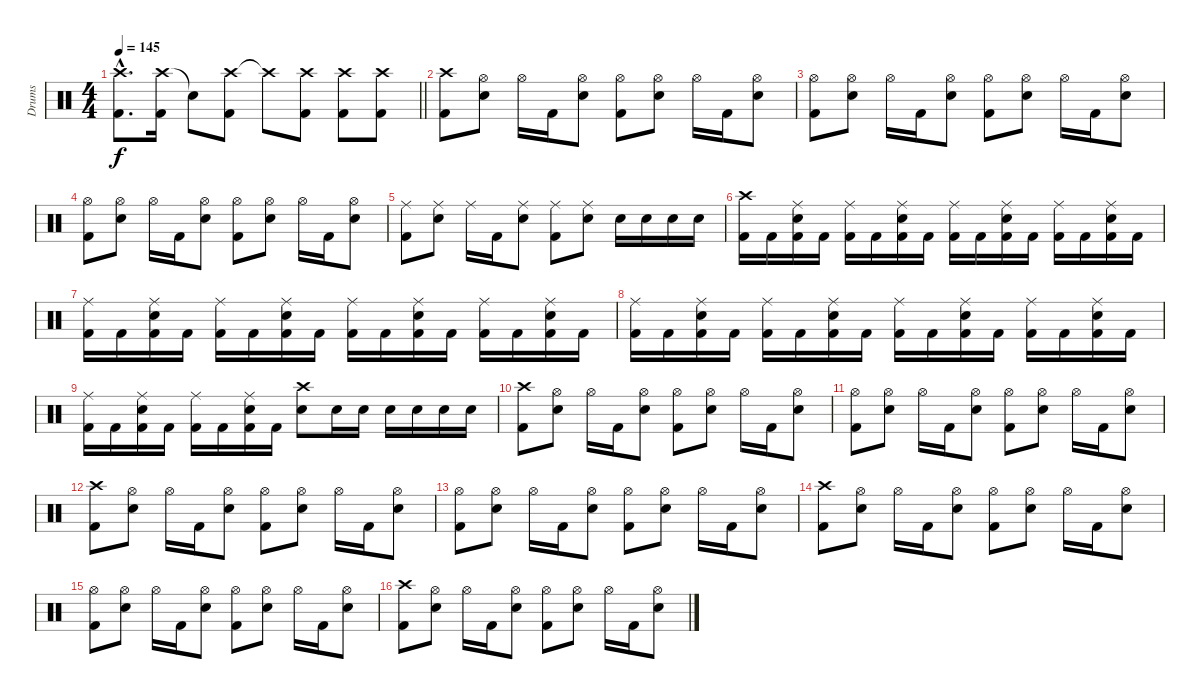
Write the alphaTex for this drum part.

\track ("Drums" "Drums") {instrument percussion}
\staff {score}
\articulation defaults
\ts (4 4)
\tempo 145
\clef neutral
\barLineRight lightlight
\ks c
("Crash high (hit)"{hac} "Kick (hit) 2"{hac}).8{d dy f} ("Crash high (hit)" "Kick (hit) 2").16 "Snare (hit)"{t}.8 ("Crash high (hit)" "Kick (hit) 2").8 "Crash high (hit)"{t}.8 ("Crash high (hit)" "Kick (hit) 2").8 ("Crash high (hit)" "Kick (hit) 2").8 ("Crash high (hit)" "Kick (hit) 2").8 |
("Crash high (hit)" "Kick (hit) 2").8 ("Hi-Hat (open)" "Snare (hit) 2").8 "Hi-Hat (open)".16 "Kick (hit) 2".16 ("Hi-Hat (open)" "Snare (hit) 2").8 ("Hi-Hat (open)" "Kick (hit) 2").8 ("Hi-Hat (open)" "Snare (hit) 2").8 "Hi-Hat (open)".16 "Kick (hit) 2".16 ("Hi-Hat (open)" "Snare (hit) 2").8 |
("Hi-Hat (open)" "Kick (hit) 2").8 ("Hi-Hat (open)" "Snare (hit) 2").8 "Hi-Hat (open)".16 "Kick (hit) 2".16 ("Hi-Hat (open)" "Snare (hit) 2").8 ("Hi-Hat (open)" "Kick (hit) 2").8 ("Hi-Hat (open)" "Snare (hit) 2").8 "Hi-Hat (open)".16 "Kick (hit) 2".16 ("Hi-Hat (open)" "Snare (hit) 2").8 |
("Hi-Hat (open)" "Kick (hit) 2").8 ("Hi-Hat (open)" "Snare (hit) 2").8 "Hi-Hat (open)".16 "Kick (hit) 2".16 ("Hi-Hat (open)" "Snare (hit) 2").8 ("Hi-Hat (open)" "Kick (hit) 2").8 ("Hi-Hat (open)" "Snare (hit) 2").8 "Hi-Hat (open)".16 "Kick (hit) 2".16 ("Hi-Hat (open)" "Snare (hit) 2").8 |
("Ride (middle)" "Kick (hit) 2").8 ("Ride (middle)" "Snare (hit) 2").8 "Ride (middle)".16 "Kick (hit) 2".16 ("Ride (middle)" "Snare (hit) 2").8 ("Ride (middle)" "Kick (hit) 2").8 ("Ride (middle)" "Snare (hit) 2").8 "Snare (hit) 2".16 "Snare (hit) 2".16 "Snare (hit) 2".16 "Snare (hit) 2".16 |
("Crash high (hit)" "Kick (hit) 2").16 "Kick (hit) 2".16 ("Ride (middle)" "Snare (hit) 2" "Kick (hit) 2").16 "Kick (hit) 2".16 ("Ride (middle)" "Kick (hit) 2").16 "Kick (hit) 2".16 ("Ride (middle)" "Snare (hit) 2" "Kick (hit) 2").16 "Kick (hit) 2".16 ("Ride (middle)" "Kick (hit) 2").16 "Kick (hit) 2".16 ("Ride (middle)" "Snare (hit) 2" "Kick (hit) 2").16 "Kick (hit) 2".16 ("Ride (middle)" "Kick (hit) 2").16 "Kick (hit) 2".16 ("Ride (middle)" "Snare (hit) 2" "Kick (hit) 2").16 "Kick (hit) 2".16 |
("Ride (middle)" "Kick (hit) 2").16 "Kick (hit) 2".16 ("Ride (middle)" "Snare (hit) 2" "Kick (hit) 2").16 "Kick (hit) 2".16 ("Ride (middle)" "Kick (hit) 2").16 "Kick (hit) 2".16 ("Ride (middle)" "Snare (hit) 2" "Kick (hit) 2").16 "Kick (hit) 2".16 ("Ride (middle)" "Kick (hit) 2").16 "Kick (hit) 2".16 ("Ride (middle)" "Snare (hit) 2" "Kick (hit) 2").16 "Kick (hit) 2".16 ("Ride (middle)" "Kick (hit) 2").16 "Kick (hit) 2".16 ("Ride (middle)" "Snare (hit) 2" "Kick (hit) 2").16 "Kick (hit) 2".16 |
("Ride (middle)" "Kick (hit) 2").16 "Kick (hit) 2".16 ("Ride (middle)" "Snare (hit) 2" "Kick (hit) 2").16 "Kick (hit) 2".16 ("Ride (middle)" "Kick (hit) 2").16 "Kick (hit) 2".16 ("Ride (middle)" "Snare (hit) 2" "Kick (hit) 2").16 "Kick (hit) 2".16 ("Ride (middle)" "Kick (hit) 2").16 "Kick (hit) 2".16 ("Ride (middle)" "Snare (hit) 2" "Kick (hit) 2").16 "Kick (hit) 2".16 ("Ride (middle)" "Kick (hit) 2").16 "Kick (hit) 2".16 ("Ride (middle)" "Snare (hit) 2" "Kick (hit) 2").16 "Kick (hit) 2".16 |
("Ride (middle)" "Kick (hit) 2").16 "Kick (hit) 2".16 ("Ride (middle)" "Snare (hit) 2" "Kick (hit) 2").16 "Kick (hit) 2".16 ("Ride (middle)" "Kick (hit) 2").16 "Kick (hit) 2".16 ("Ride (middle)" "Snare (hit) 2" "Kick (hit) 2").16 "Kick (hit) 2".16 ("Crash high (hit)" "Snare (hit) 2").8 "Snare (hit) 2".16 "Snare (hit) 2".16 "Snare (hit) 2".16 "Snare (hit) 2".16 "Snare (hit) 2".16 "Snare (hit) 2".16 |
("Crash high (hit)" "Kick (hit) 2").8 ("Hi-Hat (open)" "Snare (hit) 2").8 "Hi-Hat (open)".16 "Kick (hit) 2".16 ("Hi-Hat (open)" "Snare (hit) 2").8 ("Hi-Hat (open)" "Kick (hit) 2").8 ("Hi-Hat (open)" "Snare (hit) 2").8 "Hi-Hat (open)".16 "Kick (hit) 2".16 ("Hi-Hat (open)" "Snare (hit) 2").8 |
("Hi-Hat (open)" "Kick (hit) 2").8 ("Hi-Hat (open)" "Snare (hit) 2").8 "Hi-Hat (open)".16 "Kick (hit) 2".16 ("Hi-Hat (open)" "Snare (hit) 2").8 ("Hi-Hat (open)" "Kick (hit) 2").8 ("Hi-Hat (open)" "Snare (hit) 2").8 "Hi-Hat (open)".16 "Kick (hit) 2".16 ("Hi-Hat (open)" "Snare (hit) 2").8 |
("Crash high (hit)" "Kick (hit) 2").8 ("Hi-Hat (open)" "Snare (hit) 2").8 "Hi-Hat (open)".16 "Kick (hit) 2".16 ("Hi-Hat (open)" "Snare (hit) 2").8 ("Hi-Hat (open)" "Kick (hit) 2").8 ("Hi-Hat (open)" "Snare (hit) 2").8 "Hi-Hat (open)".16 "Kick (hit) 2".16 ("Hi-Hat (open)" "Snare (hit) 2").8 |
("Hi-Hat (open)" "Kick (hit) 2").8 ("Hi-Hat (open)" "Snare (hit) 2").8 "Hi-Hat (open)".16 "Kick (hit) 2".16 ("Hi-Hat (open)" "Snare (hit) 2").8 ("Hi-Hat (open)" "Kick (hit) 2").8 ("Hi-Hat (open)" "Snare (hit) 2").8 "Hi-Hat (open)".16 "Kick (hit) 2".16 ("Hi-Hat (open)" "Snare (hit) 2").8 |
("Crash high (hit)" "Kick (hit) 2").8 ("Hi-Hat (open)" "Snare (hit) 2").8 "Hi-Hat (open)".16 "Kick (hit) 2".16 ("Hi-Hat (open)" "Snare (hit) 2").8 ("Hi-Hat (open)" "Kick (hit) 2").8 ("Hi-Hat (open)" "Snare (hit) 2").8 "Hi-Hat (open)".16 "Kick (hit) 2".16 ("Hi-Hat (open)" "Snare (hit) 2").8 |
("Hi-Hat (open)" "Kick (hit) 2").8 ("Hi-Hat (open)" "Snare (hit) 2").8 "Hi-Hat (open)".16 "Kick (hit) 2".16 ("Hi-Hat (open)" "Snare (hit) 2").8 ("Hi-Hat (open)" "Kick (hit) 2").8 ("Hi-Hat (open)" "Snare (hit) 2").8 "Hi-Hat (open)".16 "Kick (hit) 2".16 ("Hi-Hat (open)" "Snare (hit) 2").8 |
("Crash high (hit)" "Kick (hit) 2").8 ("Hi-Hat (open)" "Snare (hit) 2").8 "Hi-Hat (open)".16 "Kick (hit) 2".16 ("Hi-Hat (open)" "Snare (hit) 2").8 ("Hi-Hat (open)" "Kick (hit) 2").8 ("Hi-Hat (open)" "Snare (hit) 2").8 "Hi-Hat (open)".16 "Kick (hit) 2".16 ("Hi-Hat (open)" "Snare (hit) 2").8
